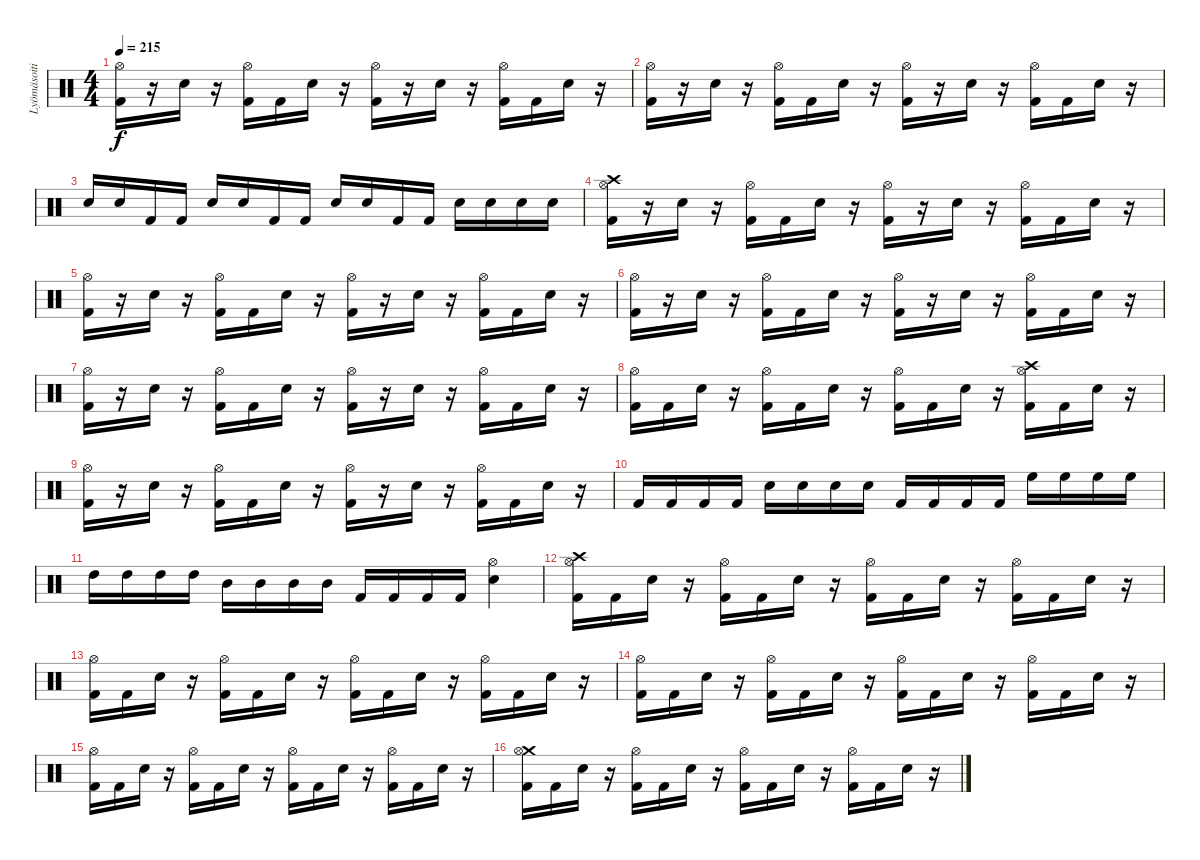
\track ("Lyömäsoitin" "Lyömäsoiti") {instrument percussion}
\staff {score}
\articulation defaults
\ts (4 4)
\tempo 215
\clef neutral
\ks c
("Hi-Hat (open)" "Kick (hit) 2").16{dy f} r.16 "Electric Snare (hit)".16 r.16 ("Hi-Hat (open)" "Kick (hit) 2").16 "Kick (hit) 2".16 "Electric Snare (hit)".16 r.16 ("Hi-Hat (open)" "Kick (hit) 2").16 r.16 "Electric Snare (hit)".16 r.16 ("Hi-Hat (open)" "Kick (hit) 2").16 "Kick (hit) 2".16 "Electric Snare (hit)".16 r.16 |
("Hi-Hat (open)" "Kick (hit) 2").16 r.16 "Electric Snare (hit)".16 r.16 ("Hi-Hat (open)" "Kick (hit) 2").16 "Kick (hit) 2".16 "Electric Snare (hit)".16 r.16 ("Hi-Hat (open)" "Kick (hit) 2").16 r.16 "Electric Snare (hit)".16 r.16 ("Hi-Hat (open)" "Kick (hit) 2").16 "Kick (hit) 2".16 "Electric Snare (hit)".16 r.16 |
"Electric Snare (hit)".16 "Electric Snare (hit)".16 "Kick (hit) 2".16 "Kick (hit) 2".16 "Electric Snare (hit)".16 "Electric Snare (hit)".16 "Kick (hit) 2".16 "Kick (hit) 2".16 "Electric Snare (hit)".16 "Electric Snare (hit)".16 "Kick (hit) 2".16 "Kick (hit) 2".16 "Electric Snare (hit)".16 "Electric Snare (hit)".16 "Electric Snare (hit)".16 "Electric Snare (hit)".16 |
("Crash high (hit)" "Hi-Hat (open)" "Kick (hit) 2").16 r.16 "Electric Snare (hit)".16 r.16 ("Hi-Hat (open)" "Kick (hit) 2").16 "Kick (hit) 2".16 "Electric Snare (hit)".16 r.16 ("Hi-Hat (open)" "Kick (hit) 2").16 r.16 "Electric Snare (hit)".16 r.16 ("Hi-Hat (open)" "Kick (hit) 2").16 "Kick (hit) 2".16 "Electric Snare (hit)".16 r.16 |
("Hi-Hat (open)" "Kick (hit) 2").16 r.16 "Electric Snare (hit)".16 r.16 ("Hi-Hat (open)" "Kick (hit) 2").16 "Kick (hit) 2".16 "Electric Snare (hit)".16 r.16 ("Hi-Hat (open)" "Kick (hit) 2").16 r.16 "Electric Snare (hit)".16 r.16 ("Hi-Hat (open)" "Kick (hit) 2").16 "Kick (hit) 2".16 "Electric Snare (hit)".16 r.16 |
("Hi-Hat (open)" "Kick (hit) 2").16 r.16 "Electric Snare (hit)".16 r.16 ("Hi-Hat (open)" "Kick (hit) 2").16 "Kick (hit) 2".16 "Electric Snare (hit)".16 r.16 ("Hi-Hat (open)" "Kick (hit) 2").16 r.16 "Electric Snare (hit)".16 r.16 ("Hi-Hat (open)" "Kick (hit) 2").16 "Kick (hit) 2".16 "Electric Snare (hit)".16 r.16 |
("Hi-Hat (open)" "Kick (hit) 2").16 r.16 "Electric Snare (hit)".16 r.16 ("Hi-Hat (open)" "Kick (hit) 2").16 "Kick (hit) 2".16 "Electric Snare (hit)".16 r.16 ("Hi-Hat (open)" "Kick (hit) 2").16 r.16 "Electric Snare (hit)".16 r.16 ("Hi-Hat (open)" "Kick (hit) 2").16 "Kick (hit) 2".16 "Electric Snare (hit)".16 r.16 |
("Hi-Hat (open)" "Kick (hit) 2").16 "Kick (hit) 2".16 "Electric Snare (hit)".16 r.16 ("Hi-Hat (open)" "Kick (hit) 2").16 "Kick (hit) 2".16 "Electric Snare (hit)".16 r.16 ("Hi-Hat (open)" "Kick (hit) 2").16 "Kick (hit) 2".16 "Electric Snare (hit)".16 r.16 ("Crash high (hit)" "Hi-Hat (open)" "Kick (hit) 2").16 "Kick (hit) 2".16 "Electric Snare (hit)".16 r.16 |
("Hi-Hat (open)" "Kick (hit) 2").16 r.16 "Electric Snare (hit)".16 r.16 ("Hi-Hat (open)" "Kick (hit) 2").16 "Kick (hit) 2".16 "Electric Snare (hit)".16 r.16 ("Hi-Hat (open)" "Kick (hit) 2").16 r.16 "Electric Snare (hit)".16 r.16 ("Hi-Hat (open)" "Kick (hit) 2").16 "Kick (hit) 2".16 "Electric Snare (hit)".16 r.16 |
"Kick (hit) 2".16 "Kick (hit) 2".16 "Kick (hit) 2".16 "Kick (hit) 2".16 "Electric Snare (hit)".16 "Electric Snare (hit)".16 "Electric Snare (hit)".16 "Electric Snare (hit)".16 "Kick (hit) 2".16 "Kick (hit) 2".16 "Kick (hit) 2".16 "Kick (hit) 2".16 "High Floor Tom (hit)".16 "High Floor Tom (hit)".16 "High Floor Tom (hit)".16 "High Floor Tom (hit)".16 |
"High Tom (hit)".16 "High Tom (hit)".16 "High Tom (hit)".16 "High Tom (hit)".16 "Mid Tom (hit)".16 "Mid Tom (hit)".16 "Mid Tom (hit)".16 "Mid Tom (hit)".16 "Kick (hit) 2".16 "Kick (hit) 2".16 "Kick (hit) 2".16 "Kick (hit) 2".16 ("Electric Snare (hit)" "Hi-Hat (open)").4 |
("Crash high (hit)" "Hi-Hat (open)" "Kick (hit) 2").16 "Kick (hit) 2".16 "Electric Snare (hit)".16 r.16 ("Hi-Hat (open)" "Kick (hit) 2").16 "Kick (hit) 2".16 "Electric Snare (hit)".16 r.16 ("Hi-Hat (open)" "Kick (hit) 2").16 "Kick (hit) 2".16 "Electric Snare (hit)".16 r.16 ("Hi-Hat (open)" "Kick (hit) 2").16 "Kick (hit) 2".16 "Electric Snare (hit)".16 r.16 |
("Hi-Hat (open)" "Kick (hit) 2").16 "Kick (hit) 2".16 "Electric Snare (hit)".16 r.16 ("Hi-Hat (open)" "Kick (hit) 2").16 "Kick (hit) 2".16 "Electric Snare (hit)".16 r.16 ("Hi-Hat (open)" "Kick (hit) 2").16 "Kick (hit) 2".16 "Electric Snare (hit)".16 r.16 ("Hi-Hat (open)" "Kick (hit) 2").16 "Kick (hit) 2".16 "Electric Snare (hit)".16 r.16 |
("Hi-Hat (open)" "Kick (hit) 2").16 "Kick (hit) 2".16 "Electric Snare (hit)".16 r.16 ("Hi-Hat (open)" "Kick (hit) 2").16 "Kick (hit) 2".16 "Electric Snare (hit)".16 r.16 ("Hi-Hat (open)" "Kick (hit) 2").16 "Kick (hit) 2".16 "Electric Snare (hit)".16 r.16 ("Hi-Hat (open)" "Kick (hit) 2").16 "Kick (hit) 2".16 "Electric Snare (hit)".16 r.16 |
("Hi-Hat (open)" "Kick (hit) 2").16 "Kick (hit) 2".16 "Electric Snare (hit)".16 r.16 ("Hi-Hat (open)" "Kick (hit) 2").16 "Kick (hit) 2".16 "Electric Snare (hit)".16 r.16 ("Hi-Hat (open)" "Kick (hit) 2").16 "Kick (hit) 2".16 "Electric Snare (hit)".16 r.16 ("Hi-Hat (open)" "Kick (hit) 2").16 "Kick (hit) 2".16 "Electric Snare (hit)".16 r.16 |
("Crash medium (hit)" "Hi-Hat (open)" "Kick (hit) 2").16 "Kick (hit) 2".16 "Electric Snare (hit)".16 r.16 ("Hi-Hat (open)" "Kick (hit) 2").16 "Kick (hit) 2".16 "Electric Snare (hit)".16 r.16 ("Hi-Hat (open)" "Kick (hit) 2").16 "Kick (hit) 2".16 "Electric Snare (hit)".16 r.16 ("Hi-Hat (open)" "Kick (hit) 2").16 "Kick (hit) 2".16 "Electric Snare (hit)".16 r.16
